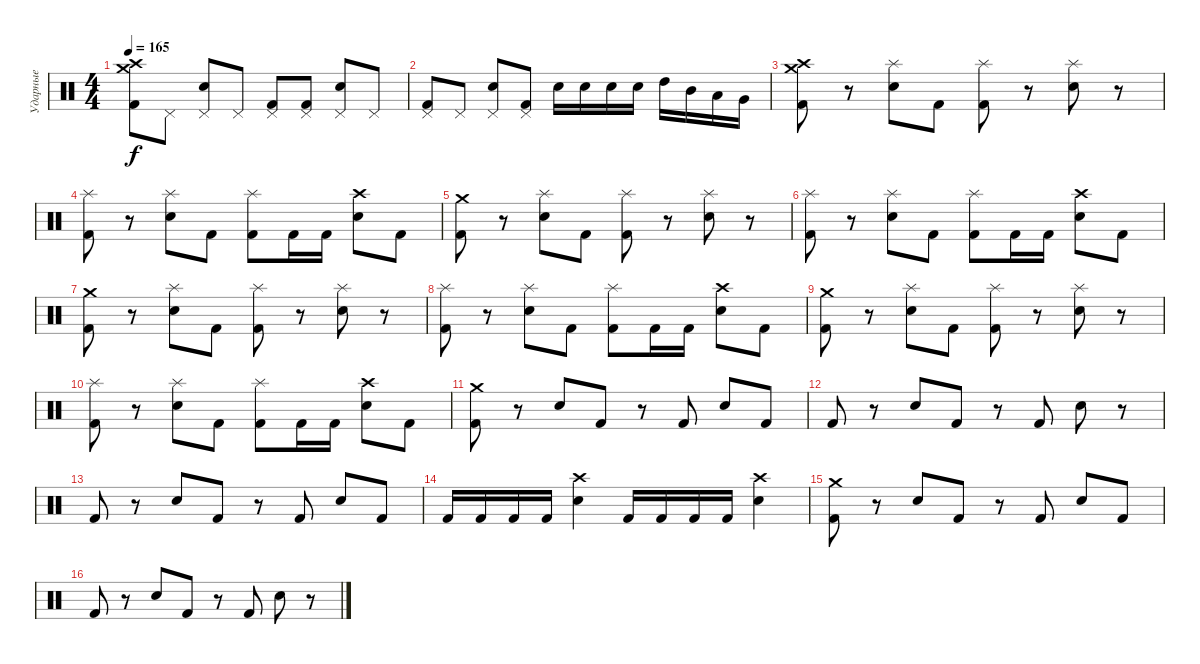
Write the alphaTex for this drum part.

\track ("Ударные" "Ударные") {instrument percussion}
\staff {score}
\articulation defaults
\ts (4 4)
\tempo 165
\clef neutral
\ks c
("Crash medium (hit)" "Crash high (hit)" "Kick (hit) 2").8{dy f} "Pedal Hi-Hat (hit)".8 ("Pedal Hi-Hat (hit)" "Electric Snare (hit)").8 "Pedal Hi-Hat (hit)".8 ("Pedal Hi-Hat (hit)" "Kick (hit) 2").8 ("Pedal Hi-Hat (hit)" "Kick (hit) 2").8 ("Pedal Hi-Hat (hit)" "Electric Snare (hit)").8 "Pedal Hi-Hat (hit)".8 |
("Pedal Hi-Hat (hit)" "Kick (hit) 2").8 "Pedal Hi-Hat (hit)".8 ("Pedal Hi-Hat (hit)" "Electric Snare (hit)").8 ("Pedal Hi-Hat (hit)" "Kick (hit) 2").8 "Electric Snare (hit)".16 "Electric Snare (hit)".16 "Electric Snare (hit)".16 "Electric Snare (hit)".16 "High Tom (hit)".16 "Mid Tom (hit)".16 "Low Tom (hit)".16 "Very Low Tom (hit)".16 |
("Crash medium (hit)" "Crash high (hit)" "Kick (hit) 2").8 r.8 ("Splash (hit)" "Electric Snare (hit)").8 "Kick (hit) 2".8 ("Splash (hit)" "Kick (hit) 2").8 r.8 ("Splash (hit)" "Electric Snare (hit)").8 r.8 |
("Splash (hit)" "Kick (hit) 2").8 r.8 ("Splash (hit)" "Electric Snare (hit)").8 "Kick (hit) 2".8 ("Splash (hit)" "Kick (hit) 2").8 "Kick (hit) 2".16 "Kick (hit) 2".16 ("Crash high (hit)" "Electric Snare (hit)").8 "Kick (hit) 2".8 |
("Crash medium (hit)" "Kick (hit) 2").8 r.8 ("Splash (hit)" "Electric Snare (hit)").8 "Kick (hit) 2".8 ("Splash (hit)" "Kick (hit) 2").8 r.8 ("Splash (hit)" "Electric Snare (hit)").8 r.8 |
("Splash (hit)" "Kick (hit) 2").8 r.8 ("Splash (hit)" "Electric Snare (hit)").8 "Kick (hit) 2".8 ("Splash (hit)" "Kick (hit) 2").8 "Kick (hit) 2".16 "Kick (hit) 2".16 ("Crash high (hit)" "Electric Snare (hit)").8 "Kick (hit) 2".8 |
("Crash medium (hit)" "Kick (hit) 2").8 r.8 ("Splash (hit)" "Electric Snare (hit)").8 "Kick (hit) 2".8 ("Splash (hit)" "Kick (hit) 2").8 r.8 ("Splash (hit)" "Electric Snare (hit)").8 r.8 |
("Splash (hit)" "Kick (hit) 2").8 r.8 ("Splash (hit)" "Electric Snare (hit)").8 "Kick (hit) 2".8 ("Splash (hit)" "Kick (hit) 2").8 "Kick (hit) 2".16 "Kick (hit) 2".16 ("Crash high (hit)" "Electric Snare (hit)").8 "Kick (hit) 2".8 |
("Crash medium (hit)" "Kick (hit) 2").8 r.8 ("Splash (hit)" "Electric Snare (hit)").8 "Kick (hit) 2".8 ("Splash (hit)" "Kick (hit) 2").8 r.8 ("Splash (hit)" "Electric Snare (hit)").8 r.8 |
("Splash (hit)" "Kick (hit) 2").8 r.8 ("Splash (hit)" "Electric Snare (hit)").8 "Kick (hit) 2".8 ("Splash (hit)" "Kick (hit) 2").8 "Kick (hit) 2".16 "Kick (hit) 2".16 ("Crash high (hit)" "Electric Snare (hit)").8 "Kick (hit) 2".8 |
("Crash medium (hit)" "Kick (hit) 2").8 r.8 "Electric Snare (hit)".8 "Kick (hit) 2".8 r.8 "Kick (hit) 2".8 "Electric Snare (hit)".8 "Kick (hit) 2".8 |
"Kick (hit) 2".8 r.8 "Electric Snare (hit)".8 "Kick (hit) 2".8 r.8 "Kick (hit) 2".8 "Electric Snare (hit)".8 r.8 |
"Kick (hit) 2".8 r.8 "Electric Snare (hit)".8 "Kick (hit) 2".8 r.8 "Kick (hit) 2".8 "Electric Snare (hit)".8 "Kick (hit) 2".8 |
"Kick (hit) 2".16 "Kick (hit) 2".16 "Kick (hit) 2".16 "Kick (hit) 2".16 ("Crash high (hit)" "Electric Snare (hit)").4 "Kick (hit) 2".16 "Kick (hit) 2".16 "Kick (hit) 2".16 "Kick (hit) 2".16 ("Crash high (hit)" "Electric Snare (hit)").4 |
("Crash medium (hit)" "Kick (hit) 2").8 r.8 "Electric Snare (hit)".8 "Kick (hit) 2".8 r.8 "Kick (hit) 2".8 "Electric Snare (hit)".8 "Kick (hit) 2".8 |
"Kick (hit) 2".8 r.8 "Electric Snare (hit)".8 "Kick (hit) 2".8 r.8 "Kick (hit) 2".8 "Electric Snare (hit)".8 r.8
